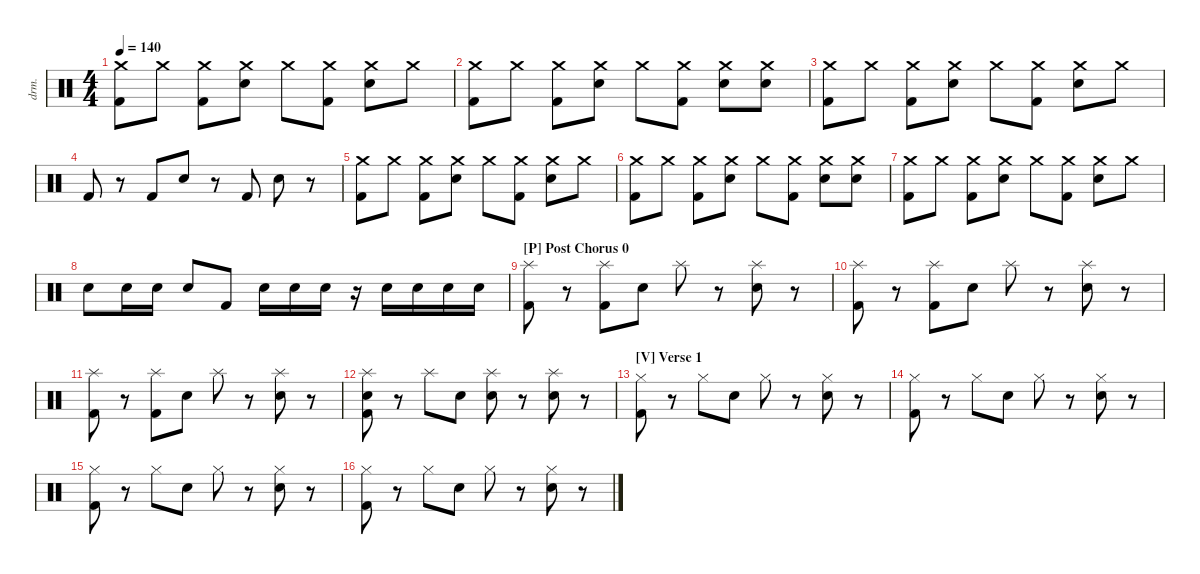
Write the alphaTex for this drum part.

\defaultSystemsLayout 4
\hideDynamics
\bracketExtendMode nobrackets
\otherSystemsTrackNameOrientation horizontal
\track ("Drumkit" "drm.") {instrument percussion}
\staff {score}
\articulation defaults
\ts (4 4)
\tempo 140
\clef neutral
\ks c
("Crash medium (hit)" "Kick (hit) 2").8{dy mf beam Down} "Crash medium (hit)".8{beam Down} ("Crash medium (hit)" "Kick (hit) 2").8{beam Down} ("Snare (hit) 2" "Crash medium (hit)").8{beam Down} "Crash medium (hit)".8{beam Down} ("Crash medium (hit)" "Kick (hit) 2").8{beam Down} ("Crash medium (hit)" "Snare (hit) 2").8{beam Down} "Crash medium (hit)".8{beam Down} |
("Crash medium (hit)" "Kick (hit) 2").8{beam Down} "Crash medium (hit)".8{beam Down} ("Crash medium (hit)" "Kick (hit) 2").8{beam Down} ("Snare (hit) 2" "Crash medium (hit)").8{beam Down} "Crash medium (hit)".8{beam Down} ("Crash medium (hit)" "Kick (hit) 2").8{beam Down} ("Crash medium (hit)" "Snare (hit) 2").8{beam Down} ("Crash medium (hit)" "Snare (hit) 2").8{beam Down} |
("Crash medium (hit)" "Kick (hit) 2").8{beam Down} "Crash medium (hit)".8{beam Down} ("Crash medium (hit)" "Kick (hit) 2").8{beam Down} ("Snare (hit) 2" "Crash medium (hit)").8{beam Down} "Crash medium (hit)".8{beam Down} ("Crash medium (hit)" "Kick (hit) 2").8{beam Down} ("Crash medium (hit)" "Snare (hit) 2").8{beam Down} "Crash medium (hit)".8{beam Down} |
"Kick (hit) 2".8{beam Up} r.8{beam Up} "Kick (hit) 2".8{beam Up} "Snare (hit) 2".8{beam Up} r.8{beam Up} "Kick (hit) 2".8{beam Up} "Snare (hit) 2".8{beam Down} r.8{beam Down} |
("Crash medium (hit)" "Kick (hit) 2").8{beam Down} "Crash medium (hit)".8{beam Down} ("Crash medium (hit)" "Kick (hit) 2").8{beam Down} ("Snare (hit) 2" "Crash medium (hit)").8{beam Down} "Crash medium (hit)".8{beam Down} ("Crash medium (hit)" "Kick (hit) 2").8{beam Down} ("Crash medium (hit)" "Snare (hit) 2").8{beam Down} "Crash medium (hit)".8{beam Down} |
("Crash medium (hit)" "Kick (hit) 2").8{beam Down} "Crash medium (hit)".8{beam Down} ("Crash medium (hit)" "Kick (hit) 2").8{beam Down} ("Snare (hit) 2" "Crash medium (hit)").8{beam Down} "Crash medium (hit)".8{beam Down} ("Crash medium (hit)" "Kick (hit) 2").8{beam Down} ("Crash medium (hit)" "Snare (hit) 2").8{beam Down} ("Crash medium (hit)" "Snare (hit) 2").8{beam Down} |
("Crash medium (hit)" "Kick (hit) 2").8{beam Down} "Crash medium (hit)".8{beam Down} ("Crash medium (hit)" "Kick (hit) 2").8{beam Down} ("Snare (hit) 2" "Crash medium (hit)").8{beam Down} "Crash medium (hit)".8{beam Down} ("Crash medium (hit)" "Kick (hit) 2").8{beam Down} ("Crash medium (hit)" "Snare (hit) 2").8{beam Down} "Crash medium (hit)".8{beam Down} |
"Snare (hit) 2".8{beam Down} "Snare (hit) 2".16{beam Down} "Snare (hit) 2".16{beam Down} "Snare (hit) 2".8{beam Up} "Kick (hit) 2".8{beam Up} "Snare (hit) 2".16{beam Down} "Snare (hit) 2".16{beam Down} "Snare (hit) 2".16{beam Down} r.16{beam Down} "Snare (hit) 2".16{beam Down} "Snare (hit) 2".16{beam Down} "Snare (hit) 2".16{beam Down} "Snare (hit) 2".16{beam Down} |
\section ("P" "Post Chorus 0")
("Kick (hit) 2" "Splash (hit)").8{beam Down} r.8{beam Down} ("Kick (hit) 2" "Splash (hit)").8{beam Down} "Snare (hit) 2".8{beam Down} "Splash (hit)".8{beam Down} r.8{beam Down} ("Snare (hit) 2" "Splash (hit)").8{beam Down} r.8{beam Down} |
("Kick (hit) 2" "Splash (hit)").8{beam Down} r.8{beam Down} ("Kick (hit) 2" "Splash (hit)").8{beam Down} "Snare (hit) 2".8{beam Down} "Splash (hit)".8{beam Down} r.8{beam Down} ("Snare (hit) 2" "Splash (hit)").8{beam Down} r.8{beam Down} |
("Kick (hit) 2" "Splash (hit)").8{beam Down} r.8{beam Down} ("Kick (hit) 2" "Splash (hit)").8{beam Down} "Snare (hit) 2".8{beam Down} "Splash (hit)".8{beam Down} r.8{beam Down} ("Snare (hit) 2" "Splash (hit)").8{beam Down} r.8{beam Down} |
("Splash (hit)" "Snare (hit) 2" "Kick (hit) 2").8{beam Down} r.8{beam Down} "Splash (hit)".8{beam Down} "Snare (hit) 2".8{beam Down} ("Splash (hit)" "Snare (hit) 2").8{beam Down} r.8{beam Down} ("Snare (hit) 2" "Splash (hit)").8{beam Down} r.8{beam Down} |
\section ("V" "Verse 1")
("Kick (hit) 2" "Hi-Hat (closed)").8{beam Down} r.8{beam Down} "Hi-Hat (closed)".8{beam Down} "Snare (hit) 2".8{beam Down} "Hi-Hat (closed)".8{beam Down} r.8{beam Down} ("Snare (hit) 2" "Hi-Hat (closed)").8{beam Down} r.8{beam Down} |
("Kick (hit) 2" "Hi-Hat (closed)").8{beam Down} r.8{beam Down} "Hi-Hat (closed)".8{beam Down} "Snare (hit) 2".8{beam Down} "Hi-Hat (closed)".8{beam Down} r.8{beam Down} ("Snare (hit) 2" "Hi-Hat (closed)").8{beam Down} r.8{beam Down} |
("Kick (hit) 2" "Hi-Hat (closed)").8{beam Down} r.8{beam Down} "Hi-Hat (closed)".8{beam Down} "Snare (hit) 2".8{beam Down} "Hi-Hat (closed)".8{beam Down} r.8{beam Down} ("Snare (hit) 2" "Hi-Hat (closed)").8{beam Down} r.8{beam Down} |
("Kick (hit) 2" "Hi-Hat (closed)").8{beam Down} r.8{beam Down} "Hi-Hat (closed)".8{beam Down} "Snare (hit) 2".8{beam Down} "Hi-Hat (closed)".8{beam Down} r.8{beam Down} ("Snare (hit) 2" "Hi-Hat (closed)").8{beam Down} r.8{beam Down}
